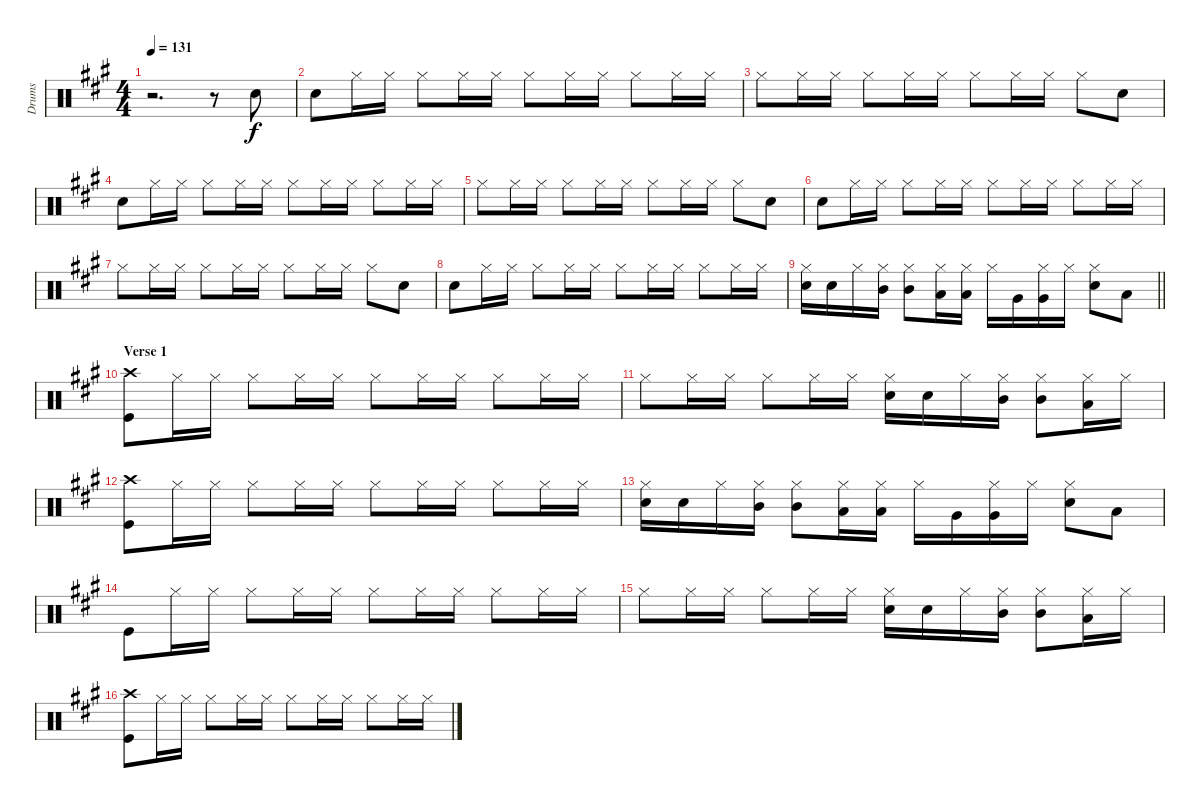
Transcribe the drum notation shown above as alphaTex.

\track ("Drums" "Drums") {instrument percussion}
\staff {score}
\articulation defaults
\ts (4 4)
\tempo 131
\clef neutral
\ks a
r.2{d dy f} r.8 "Snare (hit) 2".8 |
"Snare (hit) 2".8 "Hi-Hat (closed)".16 "Hi-Hat (closed)".16 "Hi-Hat (closed)".8 "Hi-Hat (closed)".16 "Hi-Hat (closed)".16 "Hi-Hat (closed)".8 "Hi-Hat (closed)".16 "Hi-Hat (closed)".16 "Hi-Hat (closed)".8 "Hi-Hat (closed)".16 "Hi-Hat (closed)".16 |
"Hi-Hat (closed)".8 "Hi-Hat (closed)".16 "Hi-Hat (closed)".16 "Hi-Hat (closed)".8 "Hi-Hat (closed)".16 "Hi-Hat (closed)".16 "Hi-Hat (closed)".8 "Hi-Hat (closed)".16 "Hi-Hat (closed)".16 "Hi-Hat (closed)".8 "Snare (hit) 2".8 |
"Snare (hit) 2".8 "Hi-Hat (closed)".16 "Hi-Hat (closed)".16 "Hi-Hat (closed)".8 "Hi-Hat (closed)".16 "Hi-Hat (closed)".16 "Hi-Hat (closed)".8 "Hi-Hat (closed)".16 "Hi-Hat (closed)".16 "Hi-Hat (closed)".8 "Hi-Hat (closed)".16 "Hi-Hat (closed)".16 |
"Hi-Hat (closed)".8 "Hi-Hat (closed)".16 "Hi-Hat (closed)".16 "Hi-Hat (closed)".8 "Hi-Hat (closed)".16 "Hi-Hat (closed)".16 "Hi-Hat (closed)".8 "Hi-Hat (closed)".16 "Hi-Hat (closed)".16 "Hi-Hat (closed)".8 "Snare (hit) 2".8 |
"Snare (hit) 2".8 "Hi-Hat (closed)".16 "Hi-Hat (closed)".16 "Hi-Hat (closed)".8 "Hi-Hat (closed)".16 "Hi-Hat (closed)".16 "Hi-Hat (closed)".8 "Hi-Hat (closed)".16 "Hi-Hat (closed)".16 "Hi-Hat (closed)".8 "Hi-Hat (closed)".16 "Hi-Hat (closed)".16 |
"Hi-Hat (closed)".8 "Hi-Hat (closed)".16 "Hi-Hat (closed)".16 "Hi-Hat (closed)".8 "Hi-Hat (closed)".16 "Hi-Hat (closed)".16 "Hi-Hat (closed)".8 "Hi-Hat (closed)".16 "Hi-Hat (closed)".16 "Hi-Hat (closed)".8 "Snare (hit) 2".8 |
"Snare (hit) 2".8 "Hi-Hat (closed)".16 "Hi-Hat (closed)".16 "Hi-Hat (closed)".8 "Hi-Hat (closed)".16 "Hi-Hat (closed)".16 "Hi-Hat (closed)".8 "Hi-Hat (closed)".16 "Hi-Hat (closed)".16 "Hi-Hat (closed)".8 "Hi-Hat (closed)".16 "Hi-Hat (closed)".16 |
\barLineRight lightlight
("Hi-Hat (closed)" "Snare (hit) 2").16 "Snare (hit) 2".16 "Hi-Hat (closed)".16 ("Hi-Hat (closed)" "Mid Tom (hit)").16 ("Hi-Hat (closed)" "Mid Tom (hit)").8 ("Hi-Hat (closed)" "Low Tom (hit)").16 ("Hi-Hat (closed)" "Low Tom (hit)").16 "Hi-Hat (closed)".16 "Very Low Tom (hit)".16 ("Hi-Hat (closed)" "Very Low Tom (hit)").16 "Hi-Hat (closed)".16 ("Hi-Hat (closed)" "Snare (hit) 2").8 "Low Floor Tom (hit)".8 |
\section ("" "Verse 1")
("Crash high (hit)" "Kick (hit)").8 "Hi-Hat (closed)".16 "Hi-Hat (closed)".16 "Hi-Hat (closed)".8 "Hi-Hat (closed)".16 "Hi-Hat (closed)".16 "Hi-Hat (closed)".8 "Hi-Hat (closed)".16 "Hi-Hat (closed)".16 "Hi-Hat (closed)".8 "Hi-Hat (closed)".16 "Hi-Hat (closed)".16 |
"Hi-Hat (closed)".8 "Hi-Hat (closed)".16 "Hi-Hat (closed)".16 "Hi-Hat (closed)".8 "Hi-Hat (closed)".16 "Hi-Hat (closed)".16 ("Hi-Hat (closed)" "Snare (hit) 2").16 "Snare (hit) 2".16 "Hi-Hat (closed)".16 ("Hi-Hat (closed)" "Mid Tom (hit)").16 ("Hi-Hat (closed)" "Mid Tom (hit)").8 ("Hi-Hat (closed)" "Low Tom (hit)").16 "Hi-Hat (closed)".16 |
("Crash high (hit)" "Kick (hit)").8 "Hi-Hat (closed)".16 "Hi-Hat (closed)".16 "Hi-Hat (closed)".8 "Hi-Hat (closed)".16 "Hi-Hat (closed)".16 "Hi-Hat (closed)".8 "Hi-Hat (closed)".16 "Hi-Hat (closed)".16 "Hi-Hat (closed)".8 "Hi-Hat (closed)".16 "Hi-Hat (closed)".16 |
("Hi-Hat (closed)" "Snare (hit) 2").16 "Snare (hit) 2".16 "Hi-Hat (closed)".16 ("Hi-Hat (closed)" "Mid Tom (hit)").16 ("Hi-Hat (closed)" "Mid Tom (hit)").8 ("Hi-Hat (closed)" "Low Tom (hit)").16 ("Hi-Hat (closed)" "Low Tom (hit)").16 "Hi-Hat (closed)".16 "Very Low Tom (hit)".16 ("Hi-Hat (closed)" "Very Low Tom (hit)").16 "Hi-Hat (closed)".16 ("Hi-Hat (closed)" "Snare (hit) 2").8 "Low Floor Tom (hit)".8 |
"Kick (hit)".8 "Hi-Hat (closed)".16 "Hi-Hat (closed)".16 "Hi-Hat (closed)".8 "Hi-Hat (closed)".16 "Hi-Hat (closed)".16 "Hi-Hat (closed)".8 "Hi-Hat (closed)".16 "Hi-Hat (closed)".16 "Hi-Hat (closed)".8 "Hi-Hat (closed)".16 "Hi-Hat (closed)".16 |
"Hi-Hat (closed)".8 "Hi-Hat (closed)".16 "Hi-Hat (closed)".16 "Hi-Hat (closed)".8 "Hi-Hat (closed)".16 "Hi-Hat (closed)".16 ("Hi-Hat (closed)" "Snare (hit) 2").16 "Snare (hit) 2".16 "Hi-Hat (closed)".16 ("Hi-Hat (closed)" "Mid Tom (hit)").16 ("Hi-Hat (closed)" "Mid Tom (hit)").8 ("Hi-Hat (closed)" "Low Tom (hit)").16 "Hi-Hat (closed)".16 |
("Crash high (hit)" "Kick (hit)").8 "Hi-Hat (closed)".16 "Hi-Hat (closed)".16 "Hi-Hat (closed)".8 "Hi-Hat (closed)".16 "Hi-Hat (closed)".16 "Hi-Hat (closed)".8 "Hi-Hat (closed)".16 "Hi-Hat (closed)".16 "Hi-Hat (closed)".8 "Hi-Hat (closed)".16 "Hi-Hat (closed)".16
